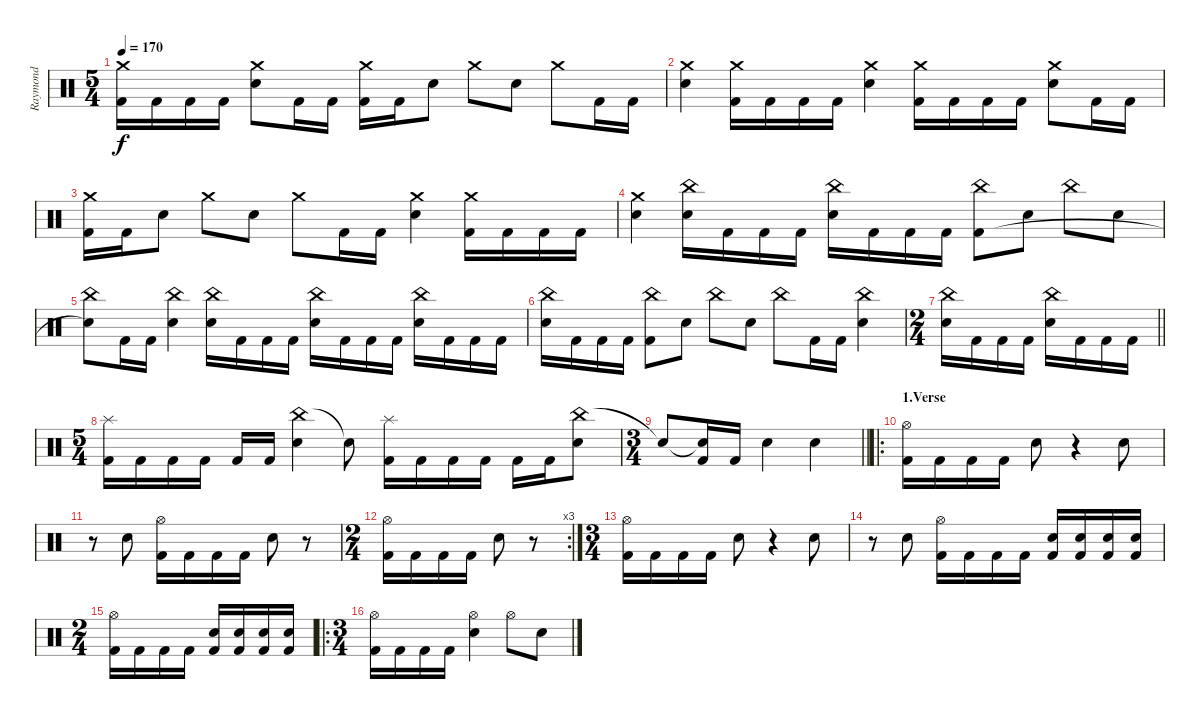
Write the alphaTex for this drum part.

\track ("Raymond" "Raymond") {instrument percussion}
\staff {score}
\articulation defaults
\ts (5 4)
\tempo 170
\clef neutral
\ks c
("Crash medium (hit)" "Kick (hit) 2").16{dy f} "Kick (hit) 2".16 "Kick (hit) 2".16 "Kick (hit) 2".16 ("Crash medium (hit)" "Electric Snare (hit)").8 "Kick (hit) 2".16 "Kick (hit) 2".16 ("Crash medium (hit)" "Kick (hit) 2").16 "Kick (hit) 2".16 "Electric Snare (hit)".8 "Crash medium (hit)".8 "Electric Snare (hit)".8 "Crash medium (hit)".8 "Kick (hit) 2".16 "Kick (hit) 2".16 |
("Crash medium (hit)" "Electric Snare (hit)").4 ("Crash medium (hit)" "Kick (hit) 2").16 "Kick (hit) 2".16 "Kick (hit) 2".16 "Kick (hit) 2".16 ("Crash medium (hit)" "Electric Snare (hit)").4 ("Crash medium (hit)" "Kick (hit) 2").16 "Kick (hit) 2".16 "Kick (hit) 2".16 "Kick (hit) 2".16 ("Crash medium (hit)" "Electric Snare (hit)").8 "Kick (hit) 2".16 "Kick (hit) 2".16 |
("Crash medium (hit)" "Kick (hit) 2").16 "Kick (hit) 2".16 "Electric Snare (hit)".8 "Crash medium (hit)".8 "Electric Snare (hit)".8 "Crash medium (hit)".8 "Kick (hit) 2".16 "Kick (hit) 2".16 ("Crash medium (hit)" "Electric Snare (hit)").4 ("Crash medium (hit)" "Kick (hit) 2").16 "Kick (hit) 2".16 "Kick (hit) 2".16 "Kick (hit) 2".16 |
("Crash medium (hit)" "Electric Snare (hit)").4 ("China (hit)" "Electric Snare (hit)").16 "Kick (hit) 2".16 "Kick (hit) 2".16 "Kick (hit) 2".16 ("China (hit)" "Electric Snare (hit)").16 "Kick (hit) 2".16 "Kick (hit) 2".16 "Kick (hit) 2".16 ("China (hit)" "Kick (hit) 2").8 "Electric Snare (hit)".8 "China (hit)".8 "Electric Snare (hit)".8 |
("China (hit)" "Snare (hit)"{t}).8 "Kick (hit) 2".16 "Kick (hit) 2".16 ("China (hit)" "Electric Snare (hit)").4 ("China (hit)" "Electric Snare (hit)").16 "Kick (hit) 2".16 "Kick (hit) 2".16 "Kick (hit) 2".16 ("China (hit)" "Electric Snare (hit)").16 "Kick (hit) 2".16 "Kick (hit) 2".16 "Kick (hit) 2".16 ("China (hit)" "Electric Snare (hit)").16 "Kick (hit) 2".16 "Kick (hit) 2".16 "Kick (hit) 2".16 |
("China (hit)" "Electric Snare (hit)").16 "Kick (hit) 2".16 "Kick (hit) 2".16 "Kick (hit) 2".16 ("China (hit)" "Kick (hit) 2").8 "Electric Snare (hit)".8 "China (hit)".8 "Electric Snare (hit)".8 "China (hit)".8 "Kick (hit) 2".16 "Kick (hit) 2".16 ("China (hit)" "Electric Snare (hit)").4 |
\ts (2 4)
\barLineRight lightlight
("China (hit)" "Electric Snare (hit)").16 "Kick (hit) 2".16 "Kick (hit) 2".16 "Kick (hit) 2".16 ("China (hit)" "Electric Snare (hit)").16 "Kick (hit) 2".16 "Kick (hit) 2".16 "Kick (hit) 2".16 |
\ts (5 4)
\section ("" "")
("Splash (hit)" "Kick (hit) 2").16 "Kick (hit) 2".16 "Kick (hit) 2".16 "Kick (hit) 2".16 "Kick (hit) 2".16 "Kick (hit) 2".16 ("China (hit)" "Electric Snare (hit)").4 "Snare (hit)"{t}.8 ("Splash (hit)" "Kick (hit) 2").16 "Kick (hit) 2".16 "Kick (hit) 2".16 "Kick (hit) 2".16 "Kick (hit) 2".16 "Kick (hit) 2".16 ("China (hit)" "Electric Snare (hit)").8 |
\ts (3 4)
\barLineRight lightlight "Snare (hit)"{t}.8
("Snare (hit)"{t} "Kick (hit) 2").16 "Kick (hit) 2".16 "Electric Snare (hit)".4 "Electric Snare (hit)".4 |
\ro
\section ("" "1.Verse")
("Hi-Hat (open)" "Kick (hit) 2").16 "Kick (hit) 2".16 "Kick (hit) 2".16 "Kick (hit) 2".16 "Electric Snare (hit)".8 r.4 "Electric Snare (hit)".8 |
r.8 "Electric Snare (hit)".8 ("Hi-Hat (open)" "Kick (hit) 2").16 "Kick (hit) 2".16 "Kick (hit) 2".16 "Kick (hit) 2".16 "Electric Snare (hit)".8 r.8 |
\rc 3
\ts (2 4)
("Hi-Hat (open)" "Kick (hit) 2").16 "Kick (hit) 2".16 "Kick (hit) 2".16 "Kick (hit) 2".16 "Electric Snare (hit)".8 r.8 |
\ts (3 4)
("Hi-Hat (open)" "Kick (hit) 2").16 "Kick (hit) 2".16 "Kick (hit) 2".16 "Kick (hit) 2".16 "Electric Snare (hit)".8 r.4 "Electric Snare (hit)".8 |
r.8 "Electric Snare (hit)".8 ("Hi-Hat (open)" "Kick (hit) 2").16 "Kick (hit) 2".16 "Kick (hit) 2".16 "Kick (hit) 2".16 ("Electric Snare (hit)" "Kick (hit) 2").16 ("Electric Snare (hit)" "Kick (hit) 2").16 ("Electric Snare (hit)" "Kick (hit) 2").16 ("Electric Snare (hit)" "Kick (hit) 2").16 |
\ts (2 4)
("Hi-Hat (open)" "Kick (hit) 2").16 "Kick (hit) 2".16 "Kick (hit) 2".16 "Kick (hit) 2".16 ("Electric Snare (hit)" "Kick (hit) 2").16 ("Electric Snare (hit)" "Kick (hit) 2").16 ("Electric Snare (hit)" "Kick (hit) 2").16 ("Electric Snare (hit)" "Kick (hit) 2").16 |
\ro
\ts (3 4)
("Hi-Hat (open)" "Kick (hit) 2").16 "Kick (hit) 2".16 "Kick (hit) 2".16 "Kick (hit) 2".16 ("Hi-Hat (open)" "Electric Snare (hit)").4 "Hi-Hat (open)".8 "Electric Snare (hit)".8
